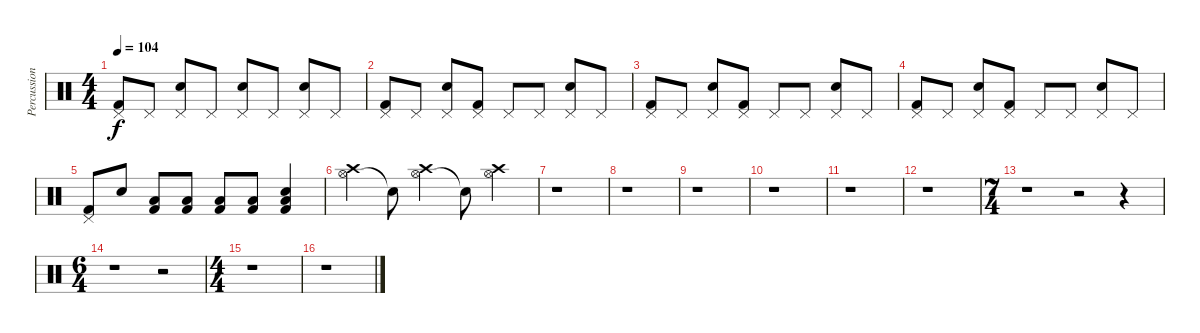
\track ("Percussion" "Percussion") {instrument percussion}
\staff {score}
\articulation defaults
\ts (4 4)
\tempo 104
\clef neutral
\ks c
("Pedal Hi-Hat (hit)" "Kick (hit) 2").8{dy f} "Pedal Hi-Hat (hit)".8 ("Pedal Hi-Hat (hit)" "Electric Snare (hit)").8 "Pedal Hi-Hat (hit)".8 ("Pedal Hi-Hat (hit)" "Electric Snare (hit)").8 "Pedal Hi-Hat (hit)".8 ("Pedal Hi-Hat (hit)" "Electric Snare (hit)").8 "Pedal Hi-Hat (hit)".8 |
("Pedal Hi-Hat (hit)" "Kick (hit) 2").8 "Pedal Hi-Hat (hit)".8 ("Pedal Hi-Hat (hit)" "Electric Snare (hit)").8 ("Pedal Hi-Hat (hit)" "Kick (hit) 2").8 "Pedal Hi-Hat (hit)".8 "Pedal Hi-Hat (hit)".8 ("Pedal Hi-Hat (hit)" "Electric Snare (hit)").8 "Pedal Hi-Hat (hit)".8 |
("Pedal Hi-Hat (hit)" "Kick (hit) 2").8 "Pedal Hi-Hat (hit)".8 ("Pedal Hi-Hat (hit)" "Electric Snare (hit)").8 ("Pedal Hi-Hat (hit)" "Kick (hit) 2").8 "Pedal Hi-Hat (hit)".8 "Pedal Hi-Hat (hit)".8 ("Pedal Hi-Hat (hit)" "Electric Snare (hit)").8 "Pedal Hi-Hat (hit)".8 |
("Pedal Hi-Hat (hit)" "Kick (hit) 2").8 "Pedal Hi-Hat (hit)".8 ("Pedal Hi-Hat (hit)" "Electric Snare (hit)").8 ("Pedal Hi-Hat (hit)" "Kick (hit) 2").8 "Pedal Hi-Hat (hit)".8 "Pedal Hi-Hat (hit)".8 ("Pedal Hi-Hat (hit)" "Electric Snare (hit)").8 "Pedal Hi-Hat (hit)".8 |
("Pedal Hi-Hat (hit)" "Kick (hit) 2").8 "Electric Snare (hit)".8 ("Kick (hit) 2" "Low Tom (hit)").8 ("Kick (hit) 2" "Low Tom (hit)").8 ("Kick (hit) 2" "Low Tom (hit)").8 ("Kick (hit) 2" "Low Tom (hit)").8 ("Electric Snare (hit)" "Kick (hit) 2" "Low Tom (hit)").4 |
("Hi-Hat (open)" "Crash high (hit)").4 "Snare (hit)"{t}.8 ("Hi-Hat (open)" "Crash high (hit)").4 "Snare (hit)"{t}.8 ("Hi-Hat (open)" "Crash high (hit)").4 |
r.1 |
r.1 |
r.1 |
r.1 |
r.1 |
r.1 |
\ts (7 4)
r.1 r.2 r.4 |
\ts (6 4)
r.1 r.2 |
\ts (4 4)
r.1 |
r.1
